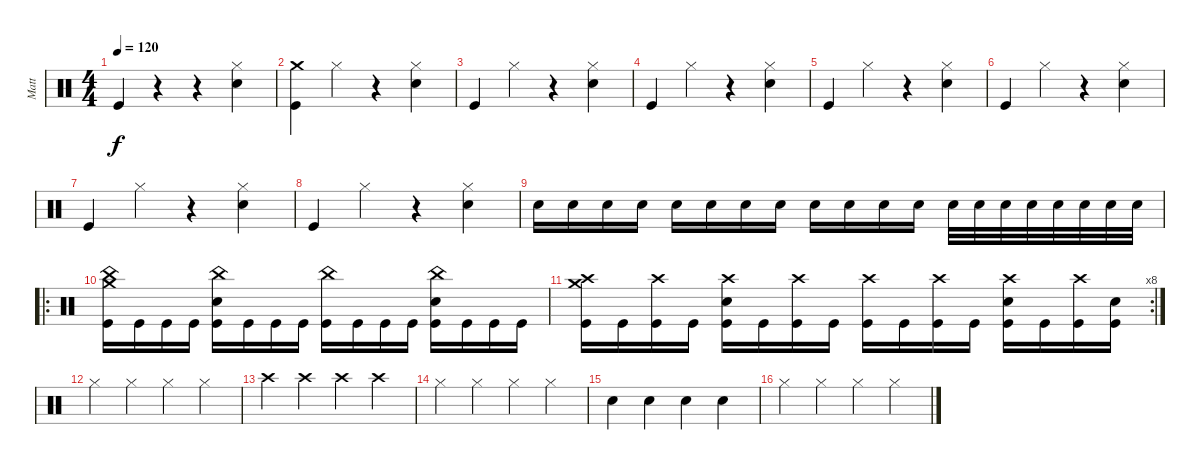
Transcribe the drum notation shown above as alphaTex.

\track ("Matt" "Matt") {instrument percussion}
\staff {score}
\articulation defaults
\ts (4 4)
\tempo 120
\clef neutral
\ks c "Kick (hit)".4{dy f}
r.4 r.4 ("Hi-Hat (closed)" "Electric Snare (hit)").4 |
("Crash medium (hit)" "Kick (hit)").4 "Hi-Hat (closed)".4 r.4 ("Hi-Hat (closed)" "Electric Snare (hit)").4 |
"Kick (hit)".4 "Hi-Hat (closed)".4 r.4 ("Hi-Hat (closed)" "Electric Snare (hit)").4 |
"Kick (hit)".4 "Hi-Hat (closed)".4 r.4 ("Hi-Hat (closed)" "Electric Snare (hit)").4 |
"Kick (hit)".4 "Hi-Hat (closed)".4 r.4 ("Electric Snare (hit)" "Hi-Hat (closed)").4 |
"Kick (hit)".4 "Hi-Hat (closed)".4 r.4 ("Electric Snare (hit)" "Hi-Hat (closed)").4 |
"Kick (hit)".4 "Hi-Hat (closed)".4 r.4 ("Electric Snare (hit)" "Hi-Hat (closed)").4 |
"Kick (hit)".4 "Hi-Hat (closed)".4 r.4 ("Hi-Hat (closed)" "Electric Snare (hit)").4 |
"Electric Snare (hit)".16 "Electric Snare (hit)".16 "Electric Snare (hit)".16 "Electric Snare (hit)".16 "Electric Snare (hit)".16 "Electric Snare (hit)".16 "Electric Snare (hit)".16 "Electric Snare (hit)".16 "Electric Snare (hit)".16 "Electric Snare (hit)".16 "Electric Snare (hit)".16 "Electric Snare (hit)".16 "Electric Snare (hit)".32 "Electric Snare (hit)".32 "Electric Snare (hit)".32 "Electric Snare (hit)".32 "Electric Snare (hit)".32 "Electric Snare (hit)".32 "Electric Snare (hit)".32 "Electric Snare (hit)".32 |
\ro
("Crash medium (hit)" "China (hit)" "Kick (hit)").16 "Kick (hit)".16 "Kick (hit)".16 "Kick (hit)".16 ("China (hit)" "Electric Snare (hit)" "Kick (hit)").16 "Kick (hit)".16 "Kick (hit)".16 "Kick (hit)".16 ("China (hit)" "Kick (hit)").16 "Kick (hit)".16 "Kick (hit)".16 "Kick (hit)".16 ("China (hit)" "Electric Snare (hit)" "Kick (hit)").16 "Kick (hit)".16 "Kick (hit)".16 "Kick (hit)".16 |
\rc 8
("Crash high (hit)" "Crash medium (hit)" "Kick (hit)").16 "Kick (hit)".16 ("Crash high (hit)" "Kick (hit)").16 "Kick (hit)".16 ("Electric Snare (hit)" "Crash high (hit)" "Kick (hit)").16 "Kick (hit)".16 ("Crash high (hit)" "Kick (hit)").16 "Kick (hit)".16 ("Crash high (hit)" "Kick (hit)").16 "Kick (hit)".16 ("Crash high (hit)" "Kick (hit)").16 "Kick (hit)".16 ("Electric Snare (hit)" "Crash high (hit)" "Kick (hit)").16 "Kick (hit)".16 ("Crash high (hit)" "Kick (hit)").16 ("Electric Snare (hit)" "Kick (hit)").16 |
"Hi-Hat (closed)".4 "Hi-Hat (closed)".4 "Hi-Hat (closed)".4 "Hi-Hat (closed)".4 |
"Crash high (hit)".4 "Crash high (hit)".4 "Crash high (hit)".4 "Crash high (hit)".4 |
"Hi-Hat (closed)".4 "Hi-Hat (closed)".4 "Hi-Hat (closed)".4 "Hi-Hat (closed)".4 |
"Electric Snare (hit)".4 "Electric Snare (hit)".4 "Electric Snare (hit)".4 "Electric Snare (hit)".4 |
"Hi-Hat (closed)".4 "Hi-Hat (closed)".4 "Hi-Hat (closed)".4 "Hi-Hat (closed)".4
